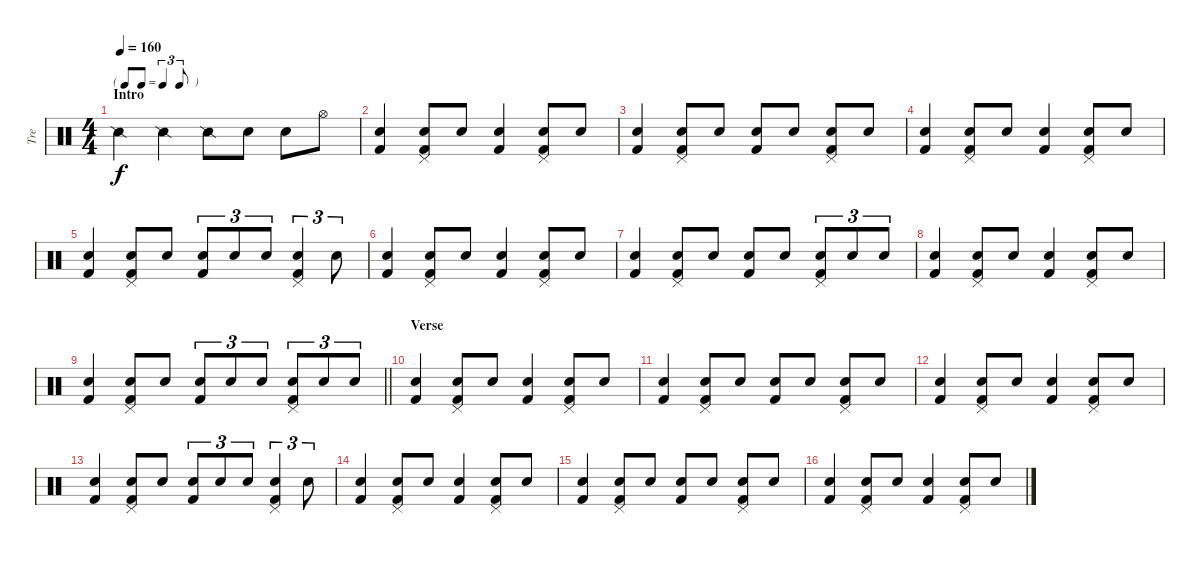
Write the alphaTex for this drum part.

\track ("Tre" "Tre") {instrument percussion}
\staff {score}
\articulation defaults
\ts (4 4)
\tf triplet8th
\section ("" "Intro")
\tempo 160
\clef neutral
\ks c "Snare (side stick) 2".4{dy f} "Snare (side stick) 2".4 "Snare (side stick) 2".8 "Snare (hit) 2".8 "Snare (hit) 2".8 "Hi-Hat (open)".8
|
("Snare (hit) 2" "Kick (hit) 2").4 ("Pedal Hi-Hat (hit)" "Snare (hit) 2" "Kick (hit) 2").8 "Snare (hit) 2".8 ("Snare (hit) 2" "Kick (hit) 2").4 ("Pedal Hi-Hat (hit)" "Snare (hit) 2" "Kick (hit) 2").8 "Snare (hit) 2".8 |
("Snare (hit) 2" "Kick (hit) 2").4 ("Pedal Hi-Hat (hit)" "Snare (hit) 2" "Kick (hit) 2").8 "Snare (hit) 2".8 ("Snare (hit) 2" "Kick (hit) 2").8 "Snare (hit) 2".8 ("Pedal Hi-Hat (hit)" "Snare (hit) 2" "Kick (hit) 2").8 "Snare (hit) 2".8 |
("Snare (hit) 2" "Kick (hit) 2").4 ("Pedal Hi-Hat (hit)" "Snare (hit) 2" "Kick (hit) 2").8 "Snare (hit) 2".8 ("Snare (hit) 2" "Kick (hit) 2").4 ("Pedal Hi-Hat (hit)" "Snare (hit) 2" "Kick (hit) 2").8 "Snare (hit) 2".8 |
("Snare (hit) 2" "Kick (hit) 2").4 ("Pedal Hi-Hat (hit)" "Snare (hit) 2" "Kick (hit) 2").8 "Snare (hit) 2".8 ("Snare (hit) 2" "Kick (hit) 2").8{tu (3 2)} "Snare (hit) 2".8{tu (3 2)} "Snare (hit) 2".8{tu (3 2)} ("Pedal Hi-Hat (hit)" "Snare (hit) 2" "Kick (hit) 2").4{tu (3 2)} "Snare (hit) 2".8{tu (3 2)} |
("Snare (hit) 2" "Kick (hit) 2").4 ("Pedal Hi-Hat (hit)" "Snare (hit) 2" "Kick (hit) 2").8 "Snare (hit) 2".8 ("Snare (hit) 2" "Kick (hit) 2").4 ("Pedal Hi-Hat (hit)" "Snare (hit) 2" "Kick (hit) 2").8 "Snare (hit) 2".8 |
("Snare (hit) 2" "Kick (hit) 2").4 ("Pedal Hi-Hat (hit)" "Snare (hit) 2" "Kick (hit) 2").8 "Snare (hit) 2".8 ("Snare (hit) 2" "Kick (hit) 2").8 "Snare (hit) 2".8 ("Pedal Hi-Hat (hit)" "Snare (hit) 2" "Kick (hit) 2").8{tu (3 2)} "Snare (hit) 2".8{tu (3 2)} "Snare (hit) 2".8{tu (3 2)} |
("Snare (hit) 2" "Kick (hit) 2").4 ("Pedal Hi-Hat (hit)" "Snare (hit) 2" "Kick (hit) 2").8 "Snare (hit) 2".8 ("Snare (hit) 2" "Kick (hit) 2").4 ("Pedal Hi-Hat (hit)" "Snare (hit) 2" "Kick (hit) 2").8 "Snare (hit) 2".8 |
\barLineRight lightlight
("Snare (hit) 2" "Kick (hit) 2").4 ("Pedal Hi-Hat (hit)" "Snare (hit) 2" "Kick (hit) 2").8 "Snare (hit) 2".8 ("Snare (hit) 2" "Kick (hit) 2").8{tu (3 2)} "Snare (hit) 2".8{tu (3 2)} "Snare (hit) 2".8{tu (3 2)} ("Pedal Hi-Hat (hit)" "Snare (hit) 2" "Kick (hit) 2").8{tu (3 2)} "Snare (hit) 2".8{tu (3 2)} "Snare (hit) 2".8{tu (3 2)} |
\section ("" "Verse")
("Snare (hit) 2" "Kick (hit) 2").4 ("Pedal Hi-Hat (hit)" "Snare (hit) 2" "Kick (hit) 2").8 "Snare (hit) 2".8 ("Snare (hit) 2" "Kick (hit) 2").4 ("Pedal Hi-Hat (hit)" "Snare (hit) 2" "Kick (hit) 2").8 "Snare (hit) 2".8 |
("Snare (hit) 2" "Kick (hit) 2").4 ("Pedal Hi-Hat (hit)" "Snare (hit) 2" "Kick (hit) 2").8 "Snare (hit) 2".8 ("Snare (hit) 2" "Kick (hit) 2").8 "Snare (hit) 2".8 ("Pedal Hi-Hat (hit)" "Snare (hit) 2" "Kick (hit) 2").8 "Snare (hit) 2".8 |
("Snare (hit) 2" "Kick (hit) 2").4 ("Pedal Hi-Hat (hit)" "Snare (hit) 2" "Kick (hit) 2").8 "Snare (hit) 2".8 ("Snare (hit) 2" "Kick (hit) 2").4 ("Pedal Hi-Hat (hit)" "Snare (hit) 2" "Kick (hit) 2").8 "Snare (hit) 2".8 |
("Snare (hit) 2" "Kick (hit) 2").4 ("Pedal Hi-Hat (hit)" "Snare (hit) 2" "Kick (hit) 2").8 "Snare (hit) 2".8 ("Snare (hit) 2" "Kick (hit) 2").8{tu (3 2)} "Snare (hit) 2".8{tu (3 2)} "Snare (hit) 2".8{tu (3 2)} ("Pedal Hi-Hat (hit)" "Snare (hit) 2" "Kick (hit) 2").4{tu (3 2)} "Snare (hit) 2".8{tu (3 2)} |
("Snare (hit) 2" "Kick (hit) 2").4 ("Pedal Hi-Hat (hit)" "Snare (hit) 2" "Kick (hit) 2").8 "Snare (hit) 2".8 ("Snare (hit) 2" "Kick (hit) 2").4 ("Pedal Hi-Hat (hit)" "Snare (hit) 2" "Kick (hit) 2").8 "Snare (hit) 2".8 |
("Snare (hit) 2" "Kick (hit) 2").4 ("Pedal Hi-Hat (hit)" "Snare (hit) 2" "Kick (hit) 2").8 "Snare (hit) 2".8 ("Snare (hit) 2" "Kick (hit) 2").8 "Snare (hit) 2".8 ("Pedal Hi-Hat (hit)" "Snare (hit) 2" "Kick (hit) 2").8 "Snare (hit) 2".8 |
("Snare (hit) 2" "Kick (hit) 2").4 ("Pedal Hi-Hat (hit)" "Snare (hit) 2" "Kick (hit) 2").8 "Snare (hit) 2".8 ("Snare (hit) 2" "Kick (hit) 2").4 ("Pedal Hi-Hat (hit)" "Snare (hit) 2" "Kick (hit) 2").8 "Snare (hit) 2".8
